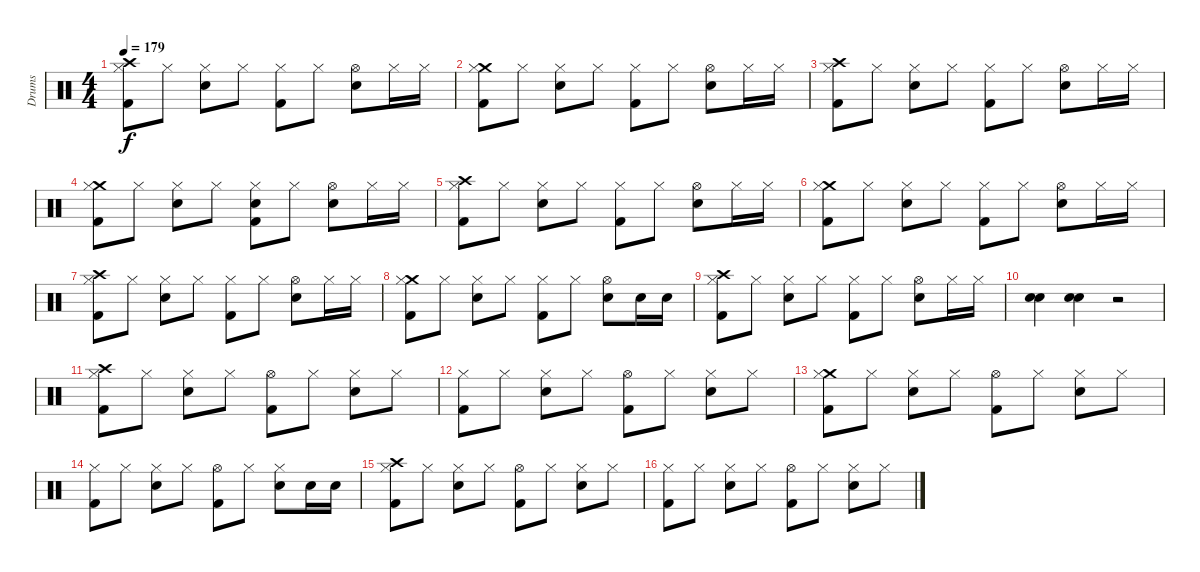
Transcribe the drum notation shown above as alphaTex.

\track ("Drums" "Drums") {instrument percussion}
\staff {score}
\articulation defaults
\ts (4 4)
\tempo 179
\clef neutral
\ks c
("Crash high (hit)" "Hi-Hat (closed)" "Kick (hit) 2").8{dy f} "Hi-Hat (closed)".8 ("Hi-Hat (closed)" "Electric Snare (hit)").8 "Hi-Hat (closed)".8 ("Hi-Hat (closed)" "Kick (hit) 2").8 "Hi-Hat (closed)".8 ("Hi-Hat (open)" "Electric Snare (hit)").8 "Hi-Hat (closed)".16 "Hi-Hat (closed)".16 |
("Crash medium (hit)" "Hi-Hat (closed)" "Kick (hit) 2").8 "Hi-Hat (closed)".8 ("Hi-Hat (closed)" "Electric Snare (hit)").8 "Hi-Hat (closed)".8 ("Hi-Hat (closed)" "Kick (hit) 2").8 "Hi-Hat (closed)".8 ("Hi-Hat (open)" "Electric Snare (hit)").8 "Hi-Hat (closed)".16 "Hi-Hat (closed)".16 |
("Crash high (hit)" "Hi-Hat (closed)" "Kick (hit) 2").8 "Hi-Hat (closed)".8 ("Hi-Hat (closed)" "Electric Snare (hit)").8 "Hi-Hat (closed)".8 ("Hi-Hat (closed)" "Kick (hit) 2").8 "Hi-Hat (closed)".8 ("Hi-Hat (open)" "Electric Snare (hit)").8 "Hi-Hat (closed)".16 "Hi-Hat (closed)".16 |
("Crash medium (hit)" "Hi-Hat (closed)" "Kick (hit) 2").8 "Hi-Hat (closed)".8 ("Hi-Hat (closed)" "Electric Snare (hit)").8 "Hi-Hat (closed)".8 ("Electric Snare (hit)" "Hi-Hat (closed)" "Kick (hit) 2").8 "Hi-Hat (closed)".8 ("Hi-Hat (open)" "Electric Snare (hit)").8 "Hi-Hat (closed)".16 "Hi-Hat (closed)".16 |
("Crash high (hit)" "Hi-Hat (closed)" "Kick (hit) 2").8 "Hi-Hat (closed)".8 ("Hi-Hat (closed)" "Electric Snare (hit)").8 "Hi-Hat (closed)".8 ("Hi-Hat (closed)" "Kick (hit) 2").8 "Hi-Hat (closed)".8 ("Hi-Hat (open)" "Electric Snare (hit)").8 "Hi-Hat (closed)".16 "Hi-Hat (closed)".16 |
("Crash medium (hit)" "Hi-Hat (closed)" "Kick (hit) 2").8 "Hi-Hat (closed)".8 ("Hi-Hat (closed)" "Electric Snare (hit)").8 "Hi-Hat (closed)".8 ("Hi-Hat (closed)" "Kick (hit) 2").8 "Hi-Hat (closed)".8 ("Hi-Hat (open)" "Electric Snare (hit)").8 "Hi-Hat (closed)".16 "Hi-Hat (closed)".16 |
("Crash high (hit)" "Hi-Hat (closed)" "Kick (hit) 2").8 "Hi-Hat (closed)".8 ("Hi-Hat (closed)" "Electric Snare (hit)").8 "Hi-Hat (closed)".8 ("Hi-Hat (closed)" "Kick (hit) 2").8 "Hi-Hat (closed)".8 ("Hi-Hat (open)" "Electric Snare (hit)").8 "Hi-Hat (closed)".16 "Hi-Hat (closed)".16 |
("Crash medium (hit)" "Hi-Hat (closed)" "Kick (hit) 2").8 "Hi-Hat (closed)".8 ("Hi-Hat (closed)" "Electric Snare (hit)").8 "Hi-Hat (closed)".8 ("Hi-Hat (closed)" "Kick (hit) 2").8 "Hi-Hat (closed)".8 ("Hi-Hat (open)" "Electric Snare (hit)").8 "Electric Snare (hit)".16 "Electric Snare (hit)".16 |
("Crash high (hit)" "Hi-Hat (closed)" "Kick (hit) 2").8 "Hi-Hat (closed)".8 ("Hi-Hat (closed)" "Electric Snare (hit)").8 "Hi-Hat (closed)".8 ("Hi-Hat (closed)" "Kick (hit) 2").8 "Hi-Hat (closed)".8 ("Hi-Hat (open)" "Electric Snare (hit)").8 "Hi-Hat (closed)".16 "Hi-Hat (closed)".16 |
("Electric Snare (hit)" "Electric Snare (hit)").4 ("Electric Snare (hit)" "Electric Snare (hit)").4 r.2 |
("Kick (hit) 2" "Crash high (hit)" "Hi-Hat (closed)").8 "Hi-Hat (closed)".8 ("Electric Snare (hit)" "Hi-Hat (closed)").8 "Hi-Hat (closed)".8 ("Kick (hit) 2" "Hi-Hat (open)").8 "Hi-Hat (closed)".8 ("Electric Snare (hit)" "Hi-Hat (closed)").8 "Hi-Hat (closed)".8 |
("Kick (hit) 2" "Hi-Hat (closed)").8 "Hi-Hat (closed)".8 ("Electric Snare (hit)" "Hi-Hat (closed)").8 "Hi-Hat (closed)".8 ("Kick (hit) 2" "Hi-Hat (open)").8 "Hi-Hat (closed)".8 ("Electric Snare (hit)" "Hi-Hat (closed)").8 "Hi-Hat (closed)".8 |
("Kick (hit) 2" "Crash medium (hit)" "Hi-Hat (closed)").8 "Hi-Hat (closed)".8 ("Electric Snare (hit)" "Hi-Hat (closed)").8 "Hi-Hat (closed)".8 ("Kick (hit) 2" "Hi-Hat (open)").8 "Hi-Hat (closed)".8 ("Electric Snare (hit)" "Hi-Hat (closed)").8 "Hi-Hat (closed)".8 |
("Kick (hit) 2" "Hi-Hat (closed)").8 "Hi-Hat (closed)".8 ("Electric Snare (hit)" "Hi-Hat (closed)").8 "Hi-Hat (closed)".8 ("Kick (hit) 2" "Hi-Hat (open)").8 "Hi-Hat (closed)".8 ("Electric Snare (hit)" "Hi-Hat (closed)").8 "Electric Snare (hit)".16 "Electric Snare (hit)".16 |
("Kick (hit) 2" "Crash high (hit)" "Hi-Hat (closed)").8 "Hi-Hat (closed)".8 ("Electric Snare (hit)" "Hi-Hat (closed)").8 "Hi-Hat (closed)".8 ("Kick (hit) 2" "Hi-Hat (open)").8 "Hi-Hat (closed)".8 ("Electric Snare (hit)" "Hi-Hat (closed)").8 "Hi-Hat (closed)".8 |
("Kick (hit) 2" "Hi-Hat (closed)").8 "Hi-Hat (closed)".8 ("Electric Snare (hit)" "Hi-Hat (closed)").8 "Hi-Hat (closed)".8 ("Kick (hit) 2" "Hi-Hat (open)").8 "Hi-Hat (closed)".8 ("Electric Snare (hit)" "Hi-Hat (closed)").8 "Hi-Hat (closed)".8
